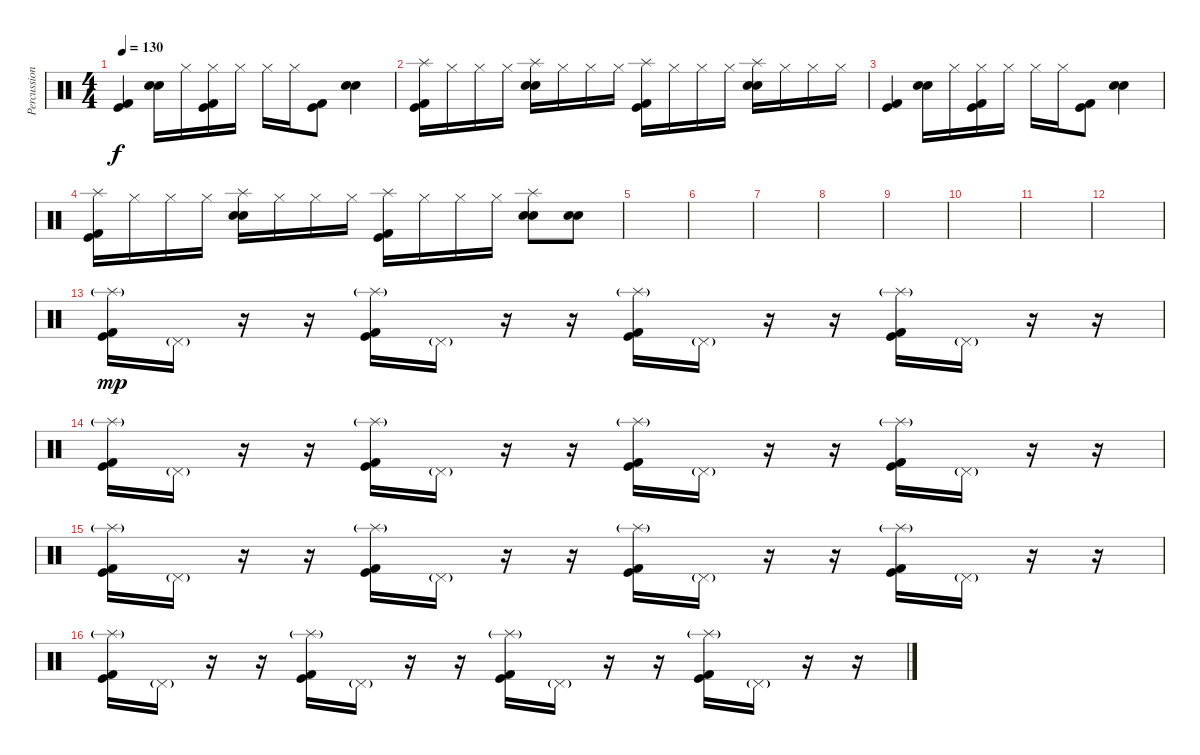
\track ("Percussion" "Percussion") {instrument percussion}
\staff {score}
\articulation defaults
\ts (4 4)
\tempo 130
\clef neutral
\ks c
("Kick (hit)" "Kick (hit) 2").4{dy f} ("Electric Snare (hit)" "Snare (hit) 2").16 "Hi-Hat (closed)".16 ("Hi-Hat (closed)" "Kick (hit)" "Kick (hit) 2").16 "Hi-Hat (closed)".16 "Hi-Hat (closed)".16 "Hi-Hat (closed)".16 ("Kick (hit)" "Kick (hit) 2").8 ("Electric Snare (hit)" "Snare (hit) 2").4 |
("Splash (hit)" "Kick (hit) 2" "Kick (hit)").16 "Hi-Hat (closed)".16 "Hi-Hat (closed)".16 "Hi-Hat (closed)".16 ("Splash (hit)" "Snare (hit) 2" "Electric Snare (hit)").16 "Hi-Hat (closed)".16 "Hi-Hat (closed)".16 "Hi-Hat (closed)".16 ("Splash (hit)" "Kick (hit) 2" "Kick (hit)").16 "Hi-Hat (closed)".16 "Hi-Hat (closed)".16 "Hi-Hat (closed)".16 ("Splash (hit)" "Snare (hit) 2" "Electric Snare (hit)").16 "Hi-Hat (closed)".16 "Hi-Hat (closed)".16 "Hi-Hat (closed)".16 |
("Kick (hit)" "Kick (hit) 2").4 ("Electric Snare (hit)" "Snare (hit) 2").16 "Hi-Hat (closed)".16 ("Hi-Hat (closed)" "Kick (hit)" "Kick (hit) 2").16 "Hi-Hat (closed)".16 "Hi-Hat (closed)".16 "Hi-Hat (closed)".16 ("Kick (hit)" "Kick (hit) 2").8 ("Electric Snare (hit)" "Snare (hit) 2").4 |
("Splash (hit)" "Kick (hit) 2" "Kick (hit)").16 "Hi-Hat (closed)".16 "Hi-Hat (closed)".16 "Hi-Hat (closed)".16 ("Splash (hit)" "Snare (hit) 2" "Electric Snare (hit)").16 "Hi-Hat (closed)".16 "Hi-Hat (closed)".16 "Hi-Hat (closed)".16 ("Splash (hit)" "Kick (hit) 2" "Kick (hit)").16 "Hi-Hat (closed)".16 "Hi-Hat (closed)".16 "Hi-Hat (closed)".16 ("Splash (hit)" "Snare (hit) 2" "Electric Snare (hit)").8 ("Snare (hit) 2" "Electric Snare (hit)").8 |
|
|
|
|
|
|
|
|
("Splash (hit)"{g} "Kick (hit)" "Kick (hit) 2").16{dy mp} "Pedal Hi-Hat (hit)"{g}.16 r.16 r.16 ("Splash (hit)"{g} "Kick (hit)" "Kick (hit) 2").16 "Pedal Hi-Hat (hit)"{g}.16 r.16 r.16 ("Splash (hit)"{g} "Kick (hit)" "Kick (hit) 2").16 "Pedal Hi-Hat (hit)"{g}.16 r.16 r.16 ("Splash (hit)"{g} "Kick (hit)" "Kick (hit) 2").16 "Pedal Hi-Hat (hit)"{g}.16 r.16 r.16 |
("Splash (hit)"{g} "Kick (hit)" "Kick (hit) 2").16 "Pedal Hi-Hat (hit)"{g}.16 r.16 r.16 ("Splash (hit)"{g} "Kick (hit)" "Kick (hit) 2").16 "Pedal Hi-Hat (hit)"{g}.16 r.16 r.16 ("Splash (hit)"{g} "Kick (hit)" "Kick (hit) 2").16 "Pedal Hi-Hat (hit)"{g}.16 r.16 r.16 ("Splash (hit)"{g} "Kick (hit)" "Kick (hit) 2").16 "Pedal Hi-Hat (hit)"{g}.16 r.16 r.16 |
("Splash (hit)"{g} "Kick (hit)" "Kick (hit) 2").16 "Pedal Hi-Hat (hit)"{g}.16 r.16 r.16 ("Splash (hit)"{g} "Kick (hit)" "Kick (hit) 2").16 "Pedal Hi-Hat (hit)"{g}.16 r.16 r.16 ("Splash (hit)"{g} "Kick (hit)" "Kick (hit) 2").16 "Pedal Hi-Hat (hit)"{g}.16 r.16 r.16 ("Splash (hit)"{g} "Kick (hit)" "Kick (hit) 2").16 "Pedal Hi-Hat (hit)"{g}.16 r.16 r.16 |
("Splash (hit)"{g} "Kick (hit)" "Kick (hit) 2").16 "Pedal Hi-Hat (hit)"{g}.16 r.16 r.16 ("Splash (hit)"{g} "Kick (hit)" "Kick (hit) 2").16 "Pedal Hi-Hat (hit)"{g}.16 r.16 r.16 ("Splash (hit)"{g} "Kick (hit)" "Kick (hit) 2").16 "Pedal Hi-Hat (hit)"{g}.16 r.16 r.16 ("Splash (hit)"{g} "Kick (hit)" "Kick (hit) 2").16 "Pedal Hi-Hat (hit)"{g}.16 r.16 r.16
